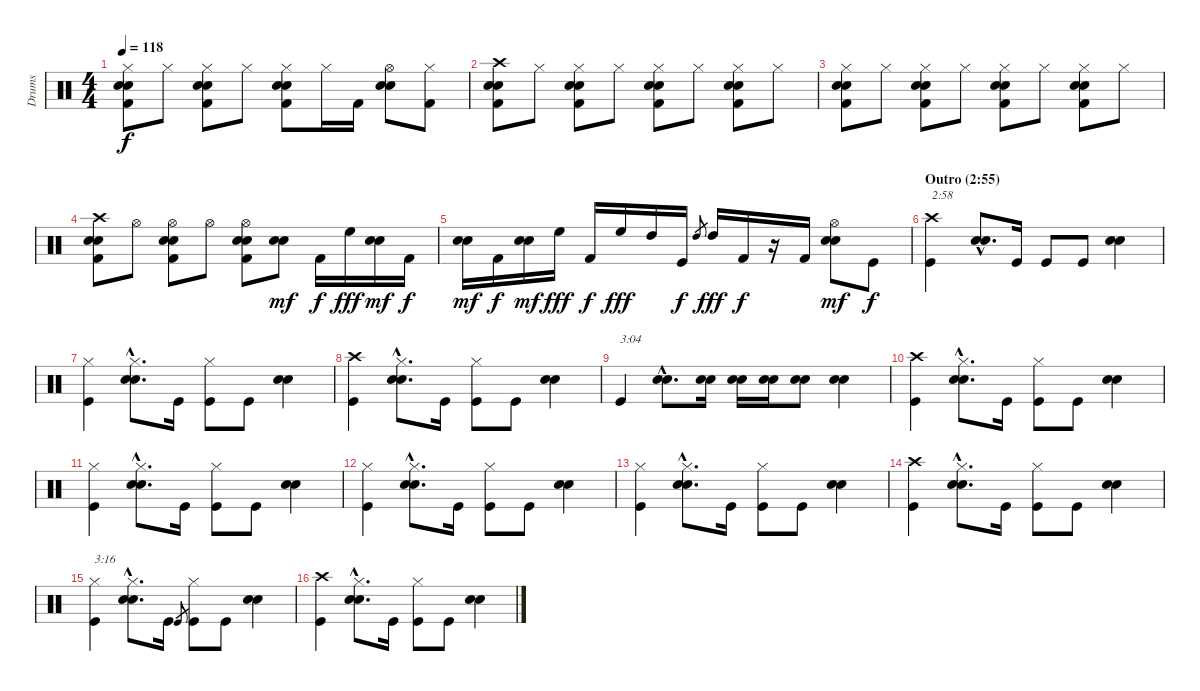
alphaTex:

\track ("Drums" "Drums") {instrument percussion}
\staff {score}
\articulation defaults
\ts (4 4)
\tempo 118
\clef neutral
\ks c
("Hi-Hat (closed)" "Electric Snare (hit)" "Snare (hit) 2" "Kick (hit) 2").8{dy f} "Hi-Hat (closed)".8 ("Hi-Hat (closed)" "Electric Snare (hit)" "Snare (hit) 2" "Kick (hit) 2").8 "Hi-Hat (closed)".8 ("Hi-Hat (closed)" "Electric Snare (hit)" "Snare (hit) 2" "Kick (hit) 2").8 "Hi-Hat (closed)".16 "Kick (hit) 2".16 ("Hi-Hat (open)" "Electric Snare (hit)" "Snare (hit) 2").8 ("Hi-Hat (closed)" "Kick (hit) 2").8 |
("Crash high (hit)" "Electric Snare (hit)" "Snare (hit) 2" "Kick (hit) 2").8 "Hi-Hat (closed)".8 ("Hi-Hat (closed)" "Electric Snare (hit)" "Snare (hit) 2" "Kick (hit) 2").8 "Hi-Hat (closed)".8 ("Hi-Hat (closed)" "Electric Snare (hit)" "Snare (hit) 2" "Kick (hit) 2").8 "Hi-Hat (closed)".8 ("Hi-Hat (closed)" "Electric Snare (hit)" "Snare (hit) 2" "Kick (hit) 2").8 "Hi-Hat (closed)".8 |
("Hi-Hat (closed)" "Electric Snare (hit)" "Snare (hit) 2" "Kick (hit) 2").8 "Hi-Hat (closed)".8 ("Hi-Hat (closed)" "Electric Snare (hit)" "Snare (hit) 2" "Kick (hit) 2").8 "Hi-Hat (closed)".8 ("Hi-Hat (closed)" "Electric Snare (hit)" "Snare (hit) 2" "Kick (hit) 2").8 "Hi-Hat (closed)".8 ("Hi-Hat (closed)" "Electric Snare (hit)" "Snare (hit) 2" "Kick (hit) 2").8 "Hi-Hat (closed)".8 |
("Crash high (hit)" "Electric Snare (hit)" "Snare (hit) 2" "Kick (hit) 2").8 "Hi-Hat (open)".8 ("Hi-Hat (open)" "Electric Snare (hit)" "Snare (hit) 2" "Kick (hit) 2").8 "Hi-Hat (open)".8 ("Hi-Hat (open)" "Electric Snare (hit)" "Snare (hit) 2" "Kick (hit) 2").8 ("Electric Snare (hit)" "Snare (hit) 2").8{dy mf} "Kick (hit) 2".16{dy f} "High Floor Tom (hit)".16{dy fff} ("Electric Snare (hit)" "Snare (hit) 2").16{dy mf} "Kick (hit) 2".16{dy f} |
("Electric Snare (hit)" "Snare (hit) 2").16{dy mf} "Kick (hit) 2".16{dy f} ("Electric Snare (hit)" "Snare (hit) 2").16{dy mf} "High Floor Tom (hit)".16{dy fff} "Kick (hit) 2".16{dy f} "High Floor Tom (hit)".16{dy fff} "High Tom (hit)".16 "Kick (hit)".16{dy f} "High Tom (hit)".8{gr} "High Tom (hit)".16{dy fff} "Kick (hit) 2".16{dy f} r.16 "Kick (hit) 2".16 ("Hi-Hat (open)" "Electric Snare (hit)" "Snare (hit) 2").8{dy mf} "Kick (hit)".8{dy f} |
\section ("" "Outro (2:55)")
("Crash high (hit)" "Kick (hit)").4{txt "2:58"} ("Electric Snare (hit)"{hac} "Snare (hit) 2"{hac}).8{d} "Kick (hit)".16 "Kick (hit)".8 "Kick (hit)".8 ("Electric Snare (hit)" "Snare (hit) 2").4 |
("Hi-Hat (closed)" "Kick (hit)").4 ("Hi-Hat (closed)"{hac} "Electric Snare (hit)"{hac} "Snare (hit) 2"{hac}).8{d} "Kick (hit)".16 ("Hi-Hat (closed)" "Kick (hit)").8 "Kick (hit)".8 ("Electric Snare (hit)" "Snare (hit) 2").4 |
("Crash high (hit)" "Kick (hit)").4 ("Hi-Hat (closed)"{hac} "Electric Snare (hit)"{hac} "Snare (hit) 2"{hac}).8{d} "Kick (hit)".16 ("Hi-Hat (closed)" "Kick (hit)").8 "Kick (hit)".8 ("Electric Snare (hit)" "Snare (hit) 2").4 |
"Kick (hit)".4{txt "3:04"} ("Electric Snare (hit)"{hac} "Snare (hit) 2"{hac}).8{d} ("Electric Snare (hit)" "Snare (hit) 2").16 ("Electric Snare (hit)" "Snare (hit) 2").16 ("Electric Snare (hit)" "Snare (hit) 2").16 ("Electric Snare (hit)" "Snare (hit) 2").8 ("Electric Snare (hit)" "Snare (hit) 2").4 |
("Crash high (hit)" "Kick (hit)").4 ("Hi-Hat (closed)"{hac} "Electric Snare (hit)"{hac} "Snare (hit) 2"{hac}).8{d} "Kick (hit)".16 ("Hi-Hat (closed)" "Kick (hit)").8 "Kick (hit)".8 ("Electric Snare (hit)" "Snare (hit) 2").4 |
("Hi-Hat (closed)" "Kick (hit)").4 ("Hi-Hat (closed)"{hac} "Electric Snare (hit)"{hac} "Snare (hit) 2"{hac}).8{d} "Kick (hit)".16 ("Hi-Hat (closed)" "Kick (hit)").8 "Kick (hit)".8 ("Electric Snare (hit)" "Snare (hit) 2").4 |
("Hi-Hat (closed)" "Kick (hit)").4 ("Hi-Hat (closed)"{hac} "Electric Snare (hit)"{hac} "Snare (hit) 2"{hac}).8{d} "Kick (hit)".16 ("Hi-Hat (closed)" "Kick (hit)").8 "Kick (hit)".8 ("Electric Snare (hit)" "Snare (hit) 2").4 |
("Hi-Hat (closed)" "Kick (hit)").4 ("Hi-Hat (closed)"{hac} "Electric Snare (hit)"{hac} "Snare (hit) 2"{hac}).8{d} "Kick (hit)".16 ("Hi-Hat (closed)" "Kick (hit)").8 "Kick (hit)".8 ("Electric Snare (hit)" "Snare (hit) 2").4 |
("Crash high (hit)" "Kick (hit)").4 ("Hi-Hat (closed)"{hac} "Electric Snare (hit)"{hac} "Snare (hit) 2"{hac}).8{d} "Kick (hit)".16 ("Hi-Hat (closed)" "Kick (hit)").8 "Kick (hit)".8 ("Electric Snare (hit)" "Snare (hit) 2").4 |
("Hi-Hat (closed)" "Kick (hit)").4{txt "3:16"} ("Hi-Hat (closed)"{hac} "Electric Snare (hit)"{hac} "Snare (hit) 2"{hac}).8{d} "Kick (hit)".16 "Kick (hit)".8{gr} ("Hi-Hat (closed)" "Kick (hit)").8 "Kick (hit)".8 ("Electric Snare (hit)" "Snare (hit) 2").4 |
("Crash high (hit)" "Kick (hit)").4 ("Hi-Hat (closed)"{hac} "Electric Snare (hit)"{hac} "Snare (hit) 2"{hac}).8{d} "Kick (hit)".16 ("Hi-Hat (closed)" "Kick (hit)").8 "Kick (hit)".8 ("Electric Snare (hit)" "Snare (hit) 2").4
